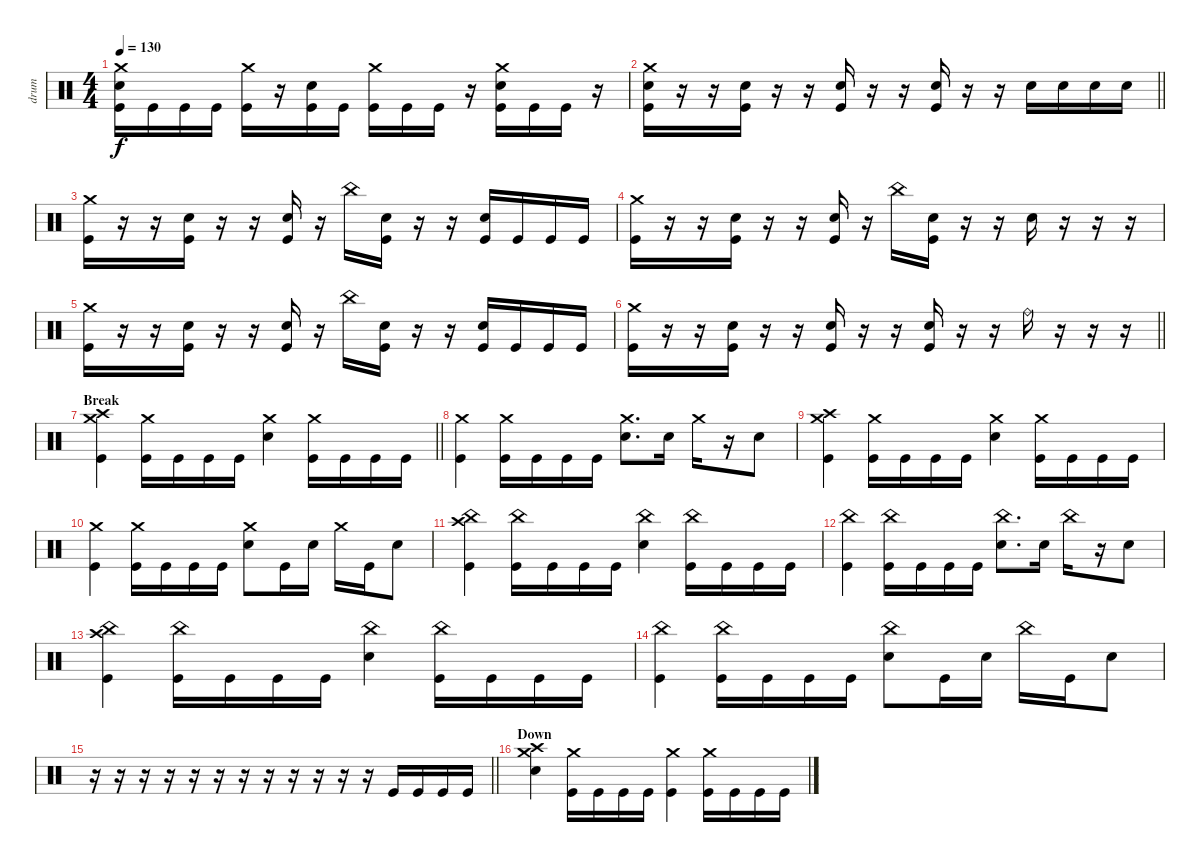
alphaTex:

\track ("drum" "drum") {instrument percussion}
\staff {score}
\articulation defaults
\ts (4 4)
\tempo 130
\clef neutral
\ks c
("Crash medium (hit)" "Snare (hit) 2" "Kick (hit)").16{dy f} "Kick (hit)".16 "Kick (hit)".16 "Kick (hit)".16 ("Crash medium (hit)" "Kick (hit)").16 r.16 ("Snare (hit) 2" "Kick (hit)").16 "Kick (hit)".16 ("Crash medium (hit)" "Kick (hit)").16 "Kick (hit)".16 "Kick (hit)".16 r.16 ("Crash medium (hit)" "Snare (hit) 2" "Kick (hit)").16 "Kick (hit)".16 "Kick (hit)".16 r.16 |
\barLineRight lightlight
("Crash medium (hit)" "Snare (hit) 2" "Kick (hit)").16 r.16 r.16 ("Snare (hit) 2" "Kick (hit)").16 r.16 r.16 ("Snare (hit) 2" "Kick (hit)").16 r.16 r.16 ("Snare (hit) 2" "Kick (hit)").16 r.16 r.16 "Snare (hit) 2".16 "Snare (hit) 2".16 "Snare (hit) 2".16 "Snare (hit) 2".16 |
("Crash medium (hit)" "Kick (hit)").16 r.16 r.16 ("Kick (hit)" "Snare (hit) 2").16 r.16 r.16 ("Kick (hit)" "Snare (hit) 2").16 r.16 "China (hit)".16 ("Kick (hit)" "Snare (hit) 2").16 r.16 r.16 ("Kick (hit)" "Snare (hit) 2").16 "Kick (hit)".16 "Kick (hit)".16 "Kick (hit)".16 |
("Crash medium (hit)" "Kick (hit)").16 r.16 r.16 ("Kick (hit)" "Snare (hit) 2").16 r.16 r.16 ("Kick (hit)" "Snare (hit) 2").16 r.16 "China (hit)".16 ("Kick (hit)" "Snare (hit) 2").16 r.16 r.16 "Snare (hit) 2".16 r.16 r.16 r.16 |
("Crash medium (hit)" "Kick (hit)").16 r.16 r.16 ("Kick (hit)" "Snare (hit) 2").16 r.16 r.16 ("Kick (hit)" "Snare (hit) 2").16 r.16 "China (hit)".16 ("Kick (hit)" "Snare (hit) 2").16 r.16 r.16 ("Kick (hit)" "Snare (hit) 2").16 "Kick (hit)".16 "Kick (hit)".16 "Kick (hit)".16 |
\barLineRight lightlight
("Crash medium (hit)" "Kick (hit)").16 r.16 r.16 ("Kick (hit)" "Snare (hit) 2").16 r.16 r.16 ("Kick (hit)" "Snare (hit) 2").16 r.16 r.16 ("Kick (hit)" "Snare (hit) 2").16 r.16 r.16 "Ride (bell)".16 r.16 r.16 r.16 |
\section ("" "Break")
\barLineRight lightlight
("Crash medium (hit)" "Crash high (hit)" "Kick (hit)").4 ("Crash medium (hit)" "Kick (hit)").16 "Kick (hit)".16 "Kick (hit)".16 "Kick (hit)".16 ("Crash medium (hit)" "Snare (hit) 2").4 ("Crash medium (hit)" "Kick (hit)").16 "Kick (hit)".16 "Kick (hit)".16 "Kick (hit)".16 |
("Crash medium (hit)" "Kick (hit)").4 ("Crash medium (hit)" "Kick (hit)").16 "Kick (hit)".16 "Kick (hit)".16 "Kick (hit)".16 ("Crash medium (hit)" "Snare (hit) 2").8{d} "Snare (hit) 2".16 "Crash medium (hit)".16 r.16 "Snare (hit) 2".8 |
("Crash medium (hit)" "Crash high (hit)" "Kick (hit)").4 ("Crash medium (hit)" "Kick (hit)").16 "Kick (hit)".16 "Kick (hit)".16 "Kick (hit)".16 ("Crash medium (hit)" "Snare (hit) 2").4 ("Crash medium (hit)" "Kick (hit)").16 "Kick (hit)".16 "Kick (hit)".16 "Kick (hit)".16 |
("Crash medium (hit)" "Kick (hit)").4 ("Crash medium (hit)" "Kick (hit)").16 "Kick (hit)".16 "Kick (hit)".16 "Kick (hit)".16 ("Crash medium (hit)" "Snare (hit) 2").8 "Kick (hit)".16 "Snare (hit) 2".16 "Crash medium (hit)".16 "Kick (hit)".16 "Snare (hit) 2".8 |
("Crash high (hit)" "China (hit)" "Kick (hit)").4 ("China (hit)" "Kick (hit)").16 "Kick (hit)".16 "Kick (hit)".16 "Kick (hit)".16 ("China (hit)" "Snare (hit) 2").4 ("China (hit)" "Kick (hit)").16 "Kick (hit)".16 "Kick (hit)".16 "Kick (hit)".16 |
("China (hit)" "Kick (hit)").4 ("China (hit)" "Kick (hit)").16 "Kick (hit)".16 "Kick (hit)".16 "Kick (hit)".16 ("China (hit)" "Snare (hit) 2").8{d} "Snare (hit) 2".16 "China (hit)".16 r.16 "Snare (hit) 2".8 |
("China (hit)" "Crash high (hit)" "Kick (hit)").4 ("China (hit)" "Kick (hit)").16 "Kick (hit)".16 "Kick (hit)".16 "Kick (hit)".16 ("China (hit)" "Snare (hit) 2").4 ("China (hit)" "Kick (hit)").16 "Kick (hit)".16 "Kick (hit)".16 "Kick (hit)".16 |
("China (hit)" "Kick (hit)").4 ("China (hit)" "Kick (hit)").16 "Kick (hit)".16 "Kick (hit)".16 "Kick (hit)".16 ("China (hit)" "Snare (hit) 2").8 "Kick (hit)".16 "Snare (hit) 2".16 "China (hit)".16 "Kick (hit)".16 "Snare (hit) 2".8 |
\barLineRight lightlight
r.16 r.16 r.16 r.16 r.16 r.16 r.16 r.16 r.16 r.16 r.16 r.16 "Kick (hit)".16 "Kick (hit)".16 "Kick (hit)".16 "Kick (hit)".16 |
\section ("" "Down")
("Crash high (hit)" "Crash medium (hit)" "Snare (hit) 2").4 ("Crash medium (hit)" "Kick (hit)").16 "Kick (hit)".16 "Kick (hit)".16 "Kick (hit)".16 ("Crash medium (hit)" "Kick (hit)").4 ("Crash medium (hit)" "Kick (hit)").16 "Kick (hit)".16 "Kick (hit)".16 "Kick (hit)".16
